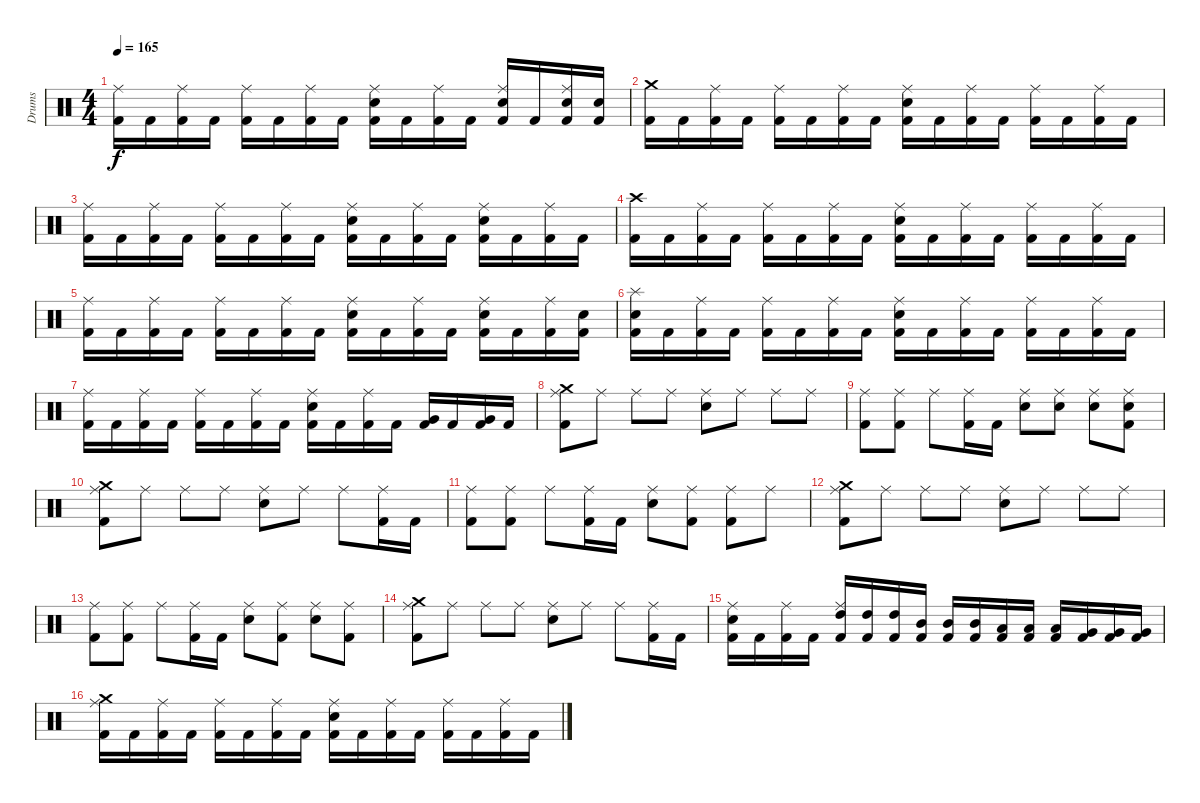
\track ("Drums" "Drums") {instrument percussion}
\staff {score}
\articulation defaults
\ts (4 4)
\tempo 165
\clef neutral
\ks c
("Kick (hit) 2" "Ride (middle)").16{dy f} "Kick (hit) 2".16 ("Kick (hit) 2" "Ride (middle)").16 "Kick (hit) 2".16 ("Kick (hit) 2" "Ride (middle)").16 "Kick (hit) 2".16 ("Kick (hit) 2" "Ride (middle)").16 "Kick (hit) 2".16 ("Kick (hit) 2" "Electric Snare (hit)" "Ride (middle)").16 "Kick (hit) 2".16 ("Kick (hit) 2" "Ride (middle)").16 "Kick (hit) 2".16 ("Kick (hit) 2" "Electric Snare (hit)" "Ride (middle)").16 "Kick (hit) 2".16 ("Kick (hit) 2" "Electric Snare (hit)" "Ride (middle)").16 ("Kick (hit) 2" "Electric Snare (hit)").16 |
("Kick (hit) 2" "Crash medium (hit)").16 "Kick (hit) 2".16 ("Kick (hit) 2" "Ride (middle)").16 "Kick (hit) 2".16 ("Kick (hit) 2" "Ride (middle)").16 "Kick (hit) 2".16 ("Kick (hit) 2" "Ride (middle)").16 "Kick (hit) 2".16 ("Kick (hit) 2" "Electric Snare (hit)" "Ride (middle)").16 "Kick (hit) 2".16 ("Kick (hit) 2" "Ride (middle)").16 "Kick (hit) 2".16 ("Kick (hit) 2" "Ride (middle)").16 "Kick (hit) 2".16 ("Kick (hit) 2" "Ride (middle)").16 "Kick (hit) 2".16 |
("Kick (hit) 2" "Ride (middle)").16 "Kick (hit) 2".16 ("Kick (hit) 2" "Ride (middle)").16 "Kick (hit) 2".16 ("Kick (hit) 2" "Ride (middle)").16 "Kick (hit) 2".16 ("Kick (hit) 2" "Ride (middle)").16 "Kick (hit) 2".16 ("Kick (hit) 2" "Electric Snare (hit)" "Ride (middle)").16 "Kick (hit) 2".16 ("Kick (hit) 2" "Ride (middle)").16 "Kick (hit) 2".16 ("Kick (hit) 2" "Electric Snare (hit)" "Ride (middle)").16 "Kick (hit) 2".16 ("Kick (hit) 2" "Ride (middle)").16 "Kick (hit) 2".16 |
("Kick (hit) 2" "Crash high (hit)").16 "Kick (hit) 2".16 ("Kick (hit) 2" "Ride (middle)").16 "Kick (hit) 2".16 ("Kick (hit) 2" "Ride (middle)").16 "Kick (hit) 2".16 ("Kick (hit) 2" "Ride (middle)").16 "Kick (hit) 2".16 ("Kick (hit) 2" "Electric Snare (hit)" "Ride (middle)").16 "Kick (hit) 2".16 ("Kick (hit) 2" "Ride (middle)").16 "Kick (hit) 2".16 ("Kick (hit) 2" "Ride (middle)").16 "Kick (hit) 2".16 ("Kick (hit) 2" "Ride (middle)").16 "Kick (hit) 2".16 |
("Kick (hit) 2" "Ride (middle)").16 "Kick (hit) 2".16 ("Kick (hit) 2" "Ride (middle)").16 "Kick (hit) 2".16 ("Kick (hit) 2" "Ride (middle)").16 "Kick (hit) 2".16 ("Kick (hit) 2" "Ride (middle)").16 "Kick (hit) 2".16 ("Kick (hit) 2" "Electric Snare (hit)" "Ride (middle)").16 "Kick (hit) 2".16 ("Kick (hit) 2" "Ride (middle)").16 "Kick (hit) 2".16 ("Kick (hit) 2" "Electric Snare (hit)" "Ride (middle)").16 "Kick (hit) 2".16 ("Kick (hit) 2" "Ride (middle)").16 ("Kick (hit) 2" "Electric Snare (hit)").16 |
("Kick (hit) 2" "Electric Snare (hit)" "Splash (hit)").16 "Kick (hit) 2".16 ("Kick (hit) 2" "Ride (middle)").16 "Kick (hit) 2".16 ("Kick (hit) 2" "Ride (middle)").16 "Kick (hit) 2".16 ("Kick (hit) 2" "Ride (middle)").16 "Kick (hit) 2".16 ("Kick (hit) 2" "Electric Snare (hit)" "Ride (middle)").16 "Kick (hit) 2".16 ("Kick (hit) 2" "Ride (middle)").16 "Kick (hit) 2".16 ("Kick (hit) 2" "Ride (middle)").16 "Kick (hit) 2".16 ("Kick (hit) 2" "Ride (middle)").16 "Kick (hit) 2".16 |
("Kick (hit) 2" "Ride (middle)").16 "Kick (hit) 2".16 ("Kick (hit) 2" "Ride (middle)").16 "Kick (hit) 2".16 ("Kick (hit) 2" "Ride (middle)").16 "Kick (hit) 2".16 ("Kick (hit) 2" "Ride (middle)").16 "Kick (hit) 2".16 ("Kick (hit) 2" "Electric Snare (hit)" "Ride (middle)").16 "Kick (hit) 2".16 ("Kick (hit) 2" "Ride (middle)").16 "Kick (hit) 2".16 ("Kick (hit) 2" "Very Low Tom (hit)").16 "Kick (hit) 2".16 ("Kick (hit) 2" "Very Low Tom (hit)").16 "Kick (hit) 2".16 |
("Kick (hit) 2" "Ride (middle)" "Crash medium (hit)").8 "Ride (middle)".8 "Ride (middle)".8 "Ride (middle)".8 ("Electric Snare (hit)" "Ride (middle)").8 "Ride (middle)".8 "Ride (middle)".8 "Ride (middle)".8 |
("Kick (hit) 2" "Ride (middle)").8 ("Kick (hit) 2" "Ride (middle)").8 "Ride (middle)".8 ("Kick (hit) 2" "Ride (middle)").16 "Kick (hit) 2".16 ("Electric Snare (hit)" "Ride (middle)").8 ("Electric Snare (hit)" "Ride (middle)").8 ("Electric Snare (hit)" "Ride (middle)").8 ("Kick (hit) 2" "Electric Snare (hit)" "Ride (middle)").8 |
("Kick (hit) 2" "Ride (middle)" "Crash medium (hit)").8 "Ride (middle)".8 "Ride (middle)".8 "Ride (middle)".8 ("Electric Snare (hit)" "Ride (middle)").8 "Ride (middle)".8 "Ride (middle)".8 ("Kick (hit) 2" "Ride (middle)").16 "Kick (hit) 2".16 |
("Kick (hit) 2" "Ride (middle)").8 ("Kick (hit) 2" "Ride (middle)").8 "Ride (middle)".8 ("Kick (hit) 2" "Ride (middle)").16 "Kick (hit) 2".16 ("Electric Snare (hit)" "Ride (middle)").8 ("Kick (hit) 2" "Ride (middle)").8 ("Kick (hit) 2" "Ride (middle)").8 "Ride (middle)".8 |
("Kick (hit) 2" "Ride (middle)" "Crash medium (hit)").8 "Ride (middle)".8 "Ride (middle)".8 "Ride (middle)".8 ("Electric Snare (hit)" "Ride (middle)").8 "Ride (middle)".8 "Ride (middle)".8 "Ride (middle)".8 |
("Kick (hit) 2" "Ride (middle)").8 ("Kick (hit) 2" "Ride (middle)").8 "Ride (middle)".8 ("Kick (hit) 2" "Ride (middle)").16 "Kick (hit) 2".16 ("Electric Snare (hit)" "Ride (middle)").8 ("Kick (hit) 2" "Ride (middle)").8 ("Electric Snare (hit)" "Ride (middle)").8 ("Kick (hit) 2" "Ride (middle)").8 |
("Kick (hit) 2" "Ride (middle)" "Crash medium (hit)").8 "Ride (middle)".8 "Ride (middle)".8 "Ride (middle)".8 ("Electric Snare (hit)" "Ride (middle)").8 "Ride (middle)".8 "Ride (middle)".8 ("Kick (hit) 2" "Ride (middle)").16 "Kick (hit) 2".16 |
("Kick (hit) 2" "Electric Snare (hit)" "Ride (middle)").16 "Kick (hit) 2".16 ("Kick (hit) 2" "Ride (middle)").16 "Kick (hit) 2".16 ("Kick (hit) 2" "High Tom (hit)" "Ride (middle)").16 ("Kick (hit) 2" "High Tom (hit)").16 ("Kick (hit) 2" "High Tom (hit)").16 ("Kick (hit) 2" "Mid Tom (hit)").16 ("Kick (hit) 2" "Mid Tom (hit)").16 ("Kick (hit) 2" "Mid Tom (hit)").16 ("Kick (hit) 2" "Low Tom (hit)").16 ("Kick (hit) 2" "Low Tom (hit)").16 ("Kick (hit) 2" "Low Tom (hit)").16 ("Kick (hit) 2" "Very Low Tom (hit)").16 ("Kick (hit) 2" "Very Low Tom (hit)").16 ("Kick (hit) 2" "Very Low Tom (hit)").16 |
("Kick (hit) 2" "Ride (middle)" "Crash medium (hit)").16 "Kick (hit) 2".16 ("Kick (hit) 2" "Ride (middle)").16 "Kick (hit) 2".16 ("Kick (hit) 2" "Ride (middle)").16 "Kick (hit) 2".16 ("Kick (hit) 2" "Ride (middle)").16 "Kick (hit) 2".16 ("Kick (hit) 2" "Electric Snare (hit)" "Ride (middle)").16 "Kick (hit) 2".16 ("Kick (hit) 2" "Ride (middle)").16 "Kick (hit) 2".16 ("Kick (hit) 2" "Ride (middle)").16 "Kick (hit) 2".16 ("Kick (hit) 2" "Ride (middle)").16 "Kick (hit) 2".16
